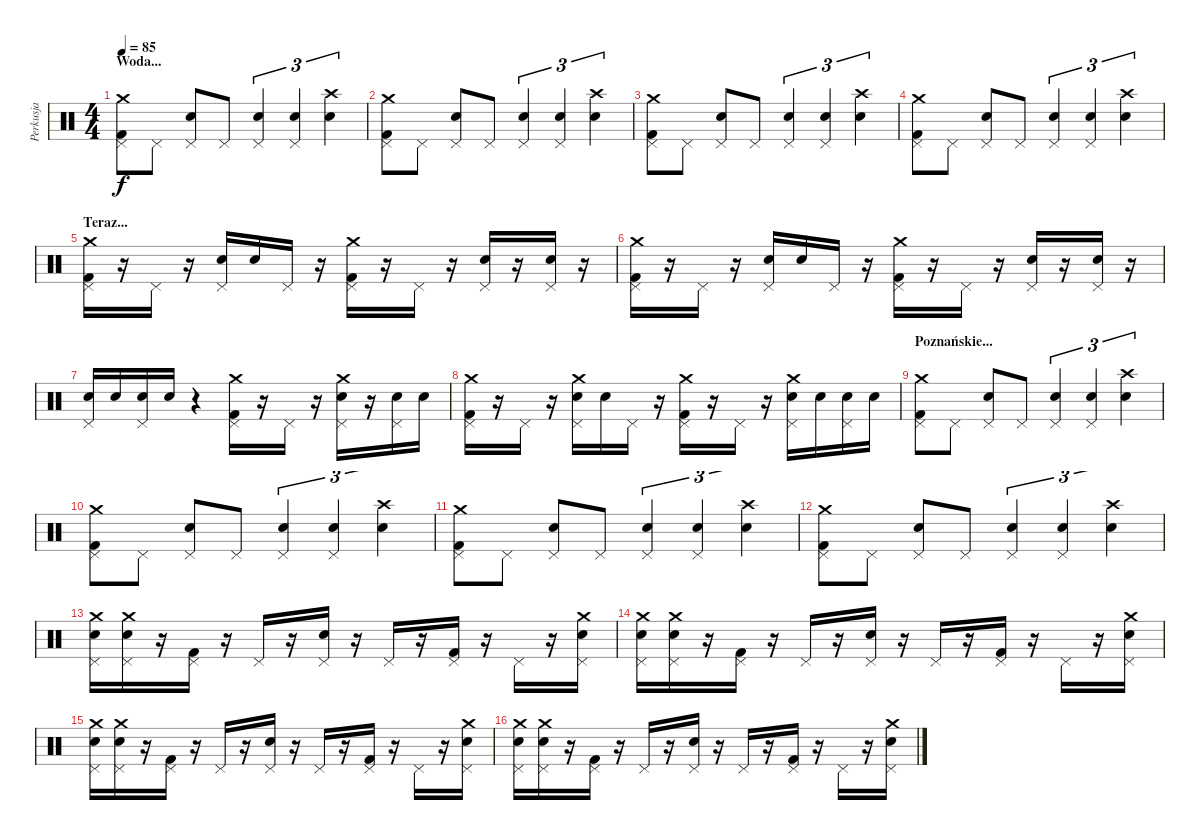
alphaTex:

\track ("Perkusja" "Perkusja") {instrument percussion}
\staff {score}
\articulation defaults
\ts (4 4)
\section ("" "Woda...")
\tempo 85
\clef neutral
\ks c
("Crash medium (hit)" "Kick (hit) 2" "Pedal Hi-Hat (hit)").8{dy f} "Pedal Hi-Hat (hit)".8 ("Snare (hit) 2" "Pedal Hi-Hat (hit)").8 "Pedal Hi-Hat (hit)".8 ("Snare (hit) 2" "Pedal Hi-Hat (hit)").4{tu (3 2)} ("Snare (hit) 2" "Pedal Hi-Hat (hit)").4{tu (3 2)} ("Snare (hit) 2" "Crash high (hit)").4{tu (3 2)} |
("Crash medium (hit)" "Kick (hit) 2" "Pedal Hi-Hat (hit)").8 "Pedal Hi-Hat (hit)".8 ("Snare (hit) 2" "Pedal Hi-Hat (hit)").8 "Pedal Hi-Hat (hit)".8 ("Snare (hit) 2" "Pedal Hi-Hat (hit)").4{tu (3 2)} ("Snare (hit) 2" "Pedal Hi-Hat (hit)").4{tu (3 2)} ("Snare (hit) 2" "Crash high (hit)").4{tu (3 2)} |
("Crash medium (hit)" "Kick (hit) 2" "Pedal Hi-Hat (hit)").8 "Pedal Hi-Hat (hit)".8 ("Snare (hit) 2" "Pedal Hi-Hat (hit)").8 "Pedal Hi-Hat (hit)".8 ("Snare (hit) 2" "Pedal Hi-Hat (hit)").4{tu (3 2)} ("Snare (hit) 2" "Pedal Hi-Hat (hit)").4{tu (3 2)} ("Snare (hit) 2" "Crash high (hit)").4{tu (3 2)} |
("Crash medium (hit)" "Kick (hit) 2" "Pedal Hi-Hat (hit)").8 "Pedal Hi-Hat (hit)".8 ("Snare (hit) 2" "Pedal Hi-Hat (hit)").8 "Pedal Hi-Hat (hit)".8 ("Snare (hit) 2" "Pedal Hi-Hat (hit)").4{tu (3 2)} ("Snare (hit) 2" "Pedal Hi-Hat (hit)").4{tu (3 2)} ("Snare (hit) 2" "Crash high (hit)").4{tu (3 2)} |
\section ("" "Teraz...")
("Crash medium (hit)" "Kick (hit) 2" "Pedal Hi-Hat (hit)").16 r.16 "Pedal Hi-Hat (hit)".16 r.16 ("Snare (hit) 2" "Pedal Hi-Hat (hit)").16 "Snare (hit) 2".16 "Pedal Hi-Hat (hit)".16 r.16 ("Crash medium (hit)" "Kick (hit) 2" "Pedal Hi-Hat (hit)").16 r.16 "Pedal Hi-Hat (hit)".16 r.16 ("Snare (hit) 2" "Pedal Hi-Hat (hit)").16 r.16 ("Snare (hit) 2" "Pedal Hi-Hat (hit)").16 r.16 |
("Crash medium (hit)" "Kick (hit) 2" "Pedal Hi-Hat (hit)").16 r.16 "Pedal Hi-Hat (hit)".16 r.16 ("Snare (hit) 2" "Pedal Hi-Hat (hit)").16 "Snare (hit) 2".16 "Pedal Hi-Hat (hit)".16 r.16 ("Crash medium (hit)" "Kick (hit) 2" "Pedal Hi-Hat (hit)").16 r.16 "Pedal Hi-Hat (hit)".16 r.16 ("Snare (hit) 2" "Pedal Hi-Hat (hit)").16 r.16 ("Snare (hit) 2" "Pedal Hi-Hat (hit)").16 r.16 |
("Snare (hit) 2" "Pedal Hi-Hat (hit)").16 "Snare (hit) 2".16 ("Snare (hit) 2" "Pedal Hi-Hat (hit)").16 "Snare (hit) 2".16 r.4 ("Crash medium (hit)" "Kick (hit) 2" "Pedal Hi-Hat (hit)").16 r.16 "Pedal Hi-Hat (hit)".16 r.16 ("Crash medium (hit)" "Snare (hit) 2" "Pedal Hi-Hat (hit)").16 r.16 ("Snare (hit) 2" "Pedal Hi-Hat (hit)").16 "Snare (hit) 2".16 |
("Crash medium (hit)" "Kick (hit) 2" "Pedal Hi-Hat (hit)").16 r.16 "Pedal Hi-Hat (hit)".16 r.16 ("Crash medium (hit)" "Snare (hit) 2" "Pedal Hi-Hat (hit)").16 "Snare (hit) 2".16 "Pedal Hi-Hat (hit)".16 r.16 ("Crash medium (hit)" "Kick (hit) 2" "Pedal Hi-Hat (hit)").16 r.16 "Pedal Hi-Hat (hit)".16 r.16 ("Crash medium (hit)" "Snare (hit) 2" "Pedal Hi-Hat (hit)").16 "Snare (hit) 2".16 ("Snare (hit) 2" "Pedal Hi-Hat (hit)").16 "Snare (hit) 2".16 |
\section ("" "Poznańskie...")
("Crash medium (hit)" "Kick (hit) 2" "Pedal Hi-Hat (hit)").8 "Pedal Hi-Hat (hit)".8 ("Snare (hit) 2" "Pedal Hi-Hat (hit)").8 "Pedal Hi-Hat (hit)".8 ("Snare (hit) 2" "Pedal Hi-Hat (hit)").4{tu (3 2)} ("Snare (hit) 2" "Pedal Hi-Hat (hit)").4{tu (3 2)} ("Snare (hit) 2" "Crash high (hit)").4{tu (3 2)} |
("Crash medium (hit)" "Kick (hit) 2" "Pedal Hi-Hat (hit)").8 "Pedal Hi-Hat (hit)".8 ("Snare (hit) 2" "Pedal Hi-Hat (hit)").8 "Pedal Hi-Hat (hit)".8 ("Snare (hit) 2" "Pedal Hi-Hat (hit)").4{tu (3 2)} ("Snare (hit) 2" "Pedal Hi-Hat (hit)").4{tu (3 2)} ("Snare (hit) 2" "Crash high (hit)").4{tu (3 2)} |
("Crash medium (hit)" "Kick (hit) 2" "Pedal Hi-Hat (hit)").8 "Pedal Hi-Hat (hit)".8 ("Snare (hit) 2" "Pedal Hi-Hat (hit)").8 "Pedal Hi-Hat (hit)".8 ("Snare (hit) 2" "Pedal Hi-Hat (hit)").4{tu (3 2)} ("Snare (hit) 2" "Pedal Hi-Hat (hit)").4{tu (3 2)} ("Snare (hit) 2" "Crash high (hit)").4{tu (3 2)} |
("Crash medium (hit)" "Kick (hit) 2" "Pedal Hi-Hat (hit)").8 "Pedal Hi-Hat (hit)".8 ("Snare (hit) 2" "Pedal Hi-Hat (hit)").8 "Pedal Hi-Hat (hit)".8 ("Snare (hit) 2" "Pedal Hi-Hat (hit)").4{tu (3 2)} ("Snare (hit) 2" "Pedal Hi-Hat (hit)").4{tu (3 2)} ("Snare (hit) 2" "Crash high (hit)").4{tu (3 2)} |
("Crash medium (hit)" "Snare (hit) 2" "Pedal Hi-Hat (hit)").16 ("Crash medium (hit)" "Snare (hit) 2" "Pedal Hi-Hat (hit)").16 r.16 ("Kick (hit) 2" "Pedal Hi-Hat (hit)").16 r.16 "Pedal Hi-Hat (hit)".16 r.16 ("Snare (hit) 2" "Pedal Hi-Hat (hit)").16 r.16 "Pedal Hi-Hat (hit)".16 r.16 ("Kick (hit) 2" "Pedal Hi-Hat (hit)").16 r.16 "Pedal Hi-Hat (hit)".16 r.16 ("Crash medium (hit)" "Snare (hit) 2" "Pedal Hi-Hat (hit)").16 |
("Crash medium (hit)" "Snare (hit) 2" "Pedal Hi-Hat (hit)").16 ("Crash medium (hit)" "Snare (hit) 2" "Pedal Hi-Hat (hit)").16 r.16 ("Kick (hit) 2" "Pedal Hi-Hat (hit)").16 r.16 "Pedal Hi-Hat (hit)".16 r.16 ("Snare (hit) 2" "Pedal Hi-Hat (hit)").16 r.16 "Pedal Hi-Hat (hit)".16 r.16 ("Kick (hit) 2" "Pedal Hi-Hat (hit)").16 r.16 "Pedal Hi-Hat (hit)".16 r.16 ("Crash medium (hit)" "Snare (hit) 2" "Pedal Hi-Hat (hit)").16 |
("Crash medium (hit)" "Snare (hit) 2" "Pedal Hi-Hat (hit)").16 ("Crash medium (hit)" "Snare (hit) 2" "Pedal Hi-Hat (hit)").16 r.16 ("Kick (hit) 2" "Pedal Hi-Hat (hit)").16 r.16 "Pedal Hi-Hat (hit)".16 r.16 ("Snare (hit) 2" "Pedal Hi-Hat (hit)").16 r.16 "Pedal Hi-Hat (hit)".16 r.16 ("Kick (hit) 2" "Pedal Hi-Hat (hit)").16 r.16 "Pedal Hi-Hat (hit)".16 r.16 ("Crash medium (hit)" "Snare (hit) 2" "Pedal Hi-Hat (hit)").16 |
("Crash medium (hit)" "Snare (hit) 2" "Pedal Hi-Hat (hit)").16 ("Crash medium (hit)" "Snare (hit) 2" "Pedal Hi-Hat (hit)").16 r.16 ("Kick (hit) 2" "Pedal Hi-Hat (hit)").16 r.16 "Pedal Hi-Hat (hit)".16 r.16 ("Snare (hit) 2" "Pedal Hi-Hat (hit)").16 r.16 "Pedal Hi-Hat (hit)".16 r.16 ("Kick (hit) 2" "Pedal Hi-Hat (hit)").16 r.16 "Pedal Hi-Hat (hit)".16 r.16 ("Crash medium (hit)" "Snare (hit) 2" "Pedal Hi-Hat (hit)").16
